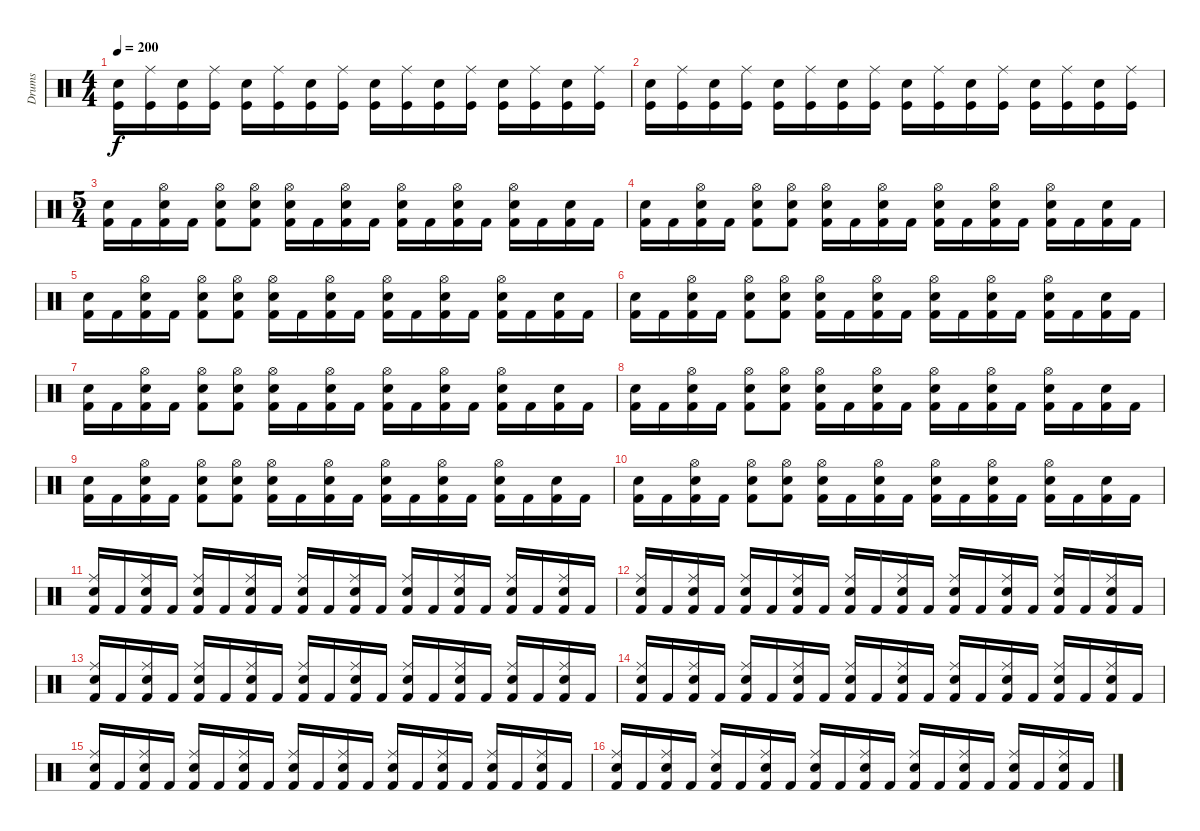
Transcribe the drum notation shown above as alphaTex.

\track ("Drums" "Drums") {instrument percussion}
\staff {score}
\articulation defaults
\ts (4 4)
\tempo 200
\clef neutral
\ks c
("Electric Snare (hit)" "Kick (hit)").16{dy f} ("Ride (middle)" "Kick (hit)").16 ("Electric Snare (hit)" "Kick (hit)").16 ("Ride (middle)" "Kick (hit)").16 ("Electric Snare (hit)" "Kick (hit)").16 ("Ride (middle)" "Kick (hit)").16 ("Electric Snare (hit)" "Kick (hit)").16 ("Ride (middle)" "Kick (hit)").16 ("Electric Snare (hit)" "Kick (hit)").16 ("Ride (middle)" "Kick (hit)").16 ("Electric Snare (hit)" "Kick (hit)").16 ("Ride (middle)" "Kick (hit)").16 ("Electric Snare (hit)" "Kick (hit)").16 ("Ride (middle)" "Kick (hit)").16 ("Electric Snare (hit)" "Kick (hit)").16 ("Ride (middle)" "Kick (hit)").16 |
("Electric Snare (hit)" "Kick (hit)").16 ("Ride (middle)" "Kick (hit)").16 ("Electric Snare (hit)" "Kick (hit)").16 ("Ride (middle)" "Kick (hit)").16 ("Electric Snare (hit)" "Kick (hit)").16 ("Ride (middle)" "Kick (hit)").16 ("Electric Snare (hit)" "Kick (hit)").16 ("Ride (middle)" "Kick (hit)").16 ("Electric Snare (hit)" "Kick (hit)").16 ("Ride (middle)" "Kick (hit)").16 ("Electric Snare (hit)" "Kick (hit)").16 ("Ride (middle)" "Kick (hit)").16 ("Electric Snare (hit)" "Kick (hit)").16 ("Ride (middle)" "Kick (hit)").16 ("Electric Snare (hit)" "Kick (hit)").16 ("Ride (middle)" "Kick (hit)").16 |
\ts (5 4)
("Electric Snare (hit)" "Kick (hit) 2").16 "Kick (hit) 2".16 ("Hi-Hat (open)" "Electric Snare (hit)" "Kick (hit) 2").16 "Kick (hit) 2".16 ("Hi-Hat (open)" "Electric Snare (hit)" "Kick (hit) 2").8 ("Hi-Hat (open)" "Electric Snare (hit)" "Kick (hit) 2").8 ("Hi-Hat (open)" "Electric Snare (hit)" "Kick (hit) 2").16 "Kick (hit) 2".16 ("Hi-Hat (open)" "Electric Snare (hit)" "Kick (hit) 2").16 "Kick (hit) 2".16 ("Hi-Hat (open)" "Electric Snare (hit)" "Kick (hit) 2").16 "Kick (hit) 2".16 ("Hi-Hat (open)" "Electric Snare (hit)" "Kick (hit) 2").16 "Kick (hit) 2".16 ("Hi-Hat (open)" "Electric Snare (hit)" "Kick (hit) 2").16 "Kick (hit) 2".16 ("Electric Snare (hit)" "Kick (hit) 2").16 "Kick (hit) 2".16 |
("Electric Snare (hit)" "Kick (hit) 2").16 "Kick (hit) 2".16 ("Hi-Hat (open)" "Electric Snare (hit)" "Kick (hit) 2").16 "Kick (hit) 2".16 ("Hi-Hat (open)" "Electric Snare (hit)" "Kick (hit) 2").8 ("Hi-Hat (open)" "Electric Snare (hit)" "Kick (hit) 2").8 ("Hi-Hat (open)" "Electric Snare (hit)" "Kick (hit) 2").16 "Kick (hit) 2".16 ("Hi-Hat (open)" "Electric Snare (hit)" "Kick (hit) 2").16 "Kick (hit) 2".16 ("Hi-Hat (open)" "Electric Snare (hit)" "Kick (hit) 2").16 "Kick (hit) 2".16 ("Hi-Hat (open)" "Electric Snare (hit)" "Kick (hit) 2").16 "Kick (hit) 2".16 ("Hi-Hat (open)" "Electric Snare (hit)" "Kick (hit) 2").16 "Kick (hit) 2".16 ("Electric Snare (hit)" "Kick (hit) 2").16 "Kick (hit) 2".16 |
("Electric Snare (hit)" "Kick (hit) 2").16 "Kick (hit) 2".16 ("Hi-Hat (open)" "Electric Snare (hit)" "Kick (hit) 2").16 "Kick (hit) 2".16 ("Hi-Hat (open)" "Electric Snare (hit)" "Kick (hit) 2").8 ("Hi-Hat (open)" "Electric Snare (hit)" "Kick (hit) 2").8 ("Hi-Hat (open)" "Electric Snare (hit)" "Kick (hit) 2").16 "Kick (hit) 2".16 ("Hi-Hat (open)" "Electric Snare (hit)" "Kick (hit) 2").16 "Kick (hit) 2".16 ("Hi-Hat (open)" "Electric Snare (hit)" "Kick (hit) 2").16 "Kick (hit) 2".16 ("Hi-Hat (open)" "Electric Snare (hit)" "Kick (hit) 2").16 "Kick (hit) 2".16 ("Hi-Hat (open)" "Electric Snare (hit)" "Kick (hit) 2").16 "Kick (hit) 2".16 ("Electric Snare (hit)" "Kick (hit) 2").16 "Kick (hit) 2".16 |
("Electric Snare (hit)" "Kick (hit) 2").16 "Kick (hit) 2".16 ("Hi-Hat (open)" "Electric Snare (hit)" "Kick (hit) 2").16 "Kick (hit) 2".16 ("Hi-Hat (open)" "Electric Snare (hit)" "Kick (hit) 2").8 ("Hi-Hat (open)" "Electric Snare (hit)" "Kick (hit) 2").8 ("Hi-Hat (open)" "Electric Snare (hit)" "Kick (hit) 2").16 "Kick (hit) 2".16 ("Hi-Hat (open)" "Electric Snare (hit)" "Kick (hit) 2").16 "Kick (hit) 2".16 ("Hi-Hat (open)" "Electric Snare (hit)" "Kick (hit) 2").16 "Kick (hit) 2".16 ("Hi-Hat (open)" "Electric Snare (hit)" "Kick (hit) 2").16 "Kick (hit) 2".16 ("Hi-Hat (open)" "Electric Snare (hit)" "Kick (hit) 2").16 "Kick (hit) 2".16 ("Electric Snare (hit)" "Kick (hit) 2").16 "Kick (hit) 2".16 |
("Electric Snare (hit)" "Kick (hit) 2").16 "Kick (hit) 2".16 ("Hi-Hat (open)" "Electric Snare (hit)" "Kick (hit) 2").16 "Kick (hit) 2".16 ("Hi-Hat (open)" "Electric Snare (hit)" "Kick (hit) 2").8 ("Hi-Hat (open)" "Electric Snare (hit)" "Kick (hit) 2").8 ("Hi-Hat (open)" "Electric Snare (hit)" "Kick (hit) 2").16 "Kick (hit) 2".16 ("Hi-Hat (open)" "Electric Snare (hit)" "Kick (hit) 2").16 "Kick (hit) 2".16 ("Hi-Hat (open)" "Electric Snare (hit)" "Kick (hit) 2").16 "Kick (hit) 2".16 ("Hi-Hat (open)" "Electric Snare (hit)" "Kick (hit) 2").16 "Kick (hit) 2".16 ("Hi-Hat (open)" "Electric Snare (hit)" "Kick (hit) 2").16 "Kick (hit) 2".16 ("Electric Snare (hit)" "Kick (hit) 2").16 "Kick (hit) 2".16 |
("Electric Snare (hit)" "Kick (hit) 2").16 "Kick (hit) 2".16 ("Hi-Hat (open)" "Electric Snare (hit)" "Kick (hit) 2").16 "Kick (hit) 2".16 ("Hi-Hat (open)" "Electric Snare (hit)" "Kick (hit) 2").8 ("Hi-Hat (open)" "Electric Snare (hit)" "Kick (hit) 2").8 ("Hi-Hat (open)" "Electric Snare (hit)" "Kick (hit) 2").16 "Kick (hit) 2".16 ("Hi-Hat (open)" "Electric Snare (hit)" "Kick (hit) 2").16 "Kick (hit) 2".16 ("Hi-Hat (open)" "Electric Snare (hit)" "Kick (hit) 2").16 "Kick (hit) 2".16 ("Hi-Hat (open)" "Electric Snare (hit)" "Kick (hit) 2").16 "Kick (hit) 2".16 ("Hi-Hat (open)" "Electric Snare (hit)" "Kick (hit) 2").16 "Kick (hit) 2".16 ("Electric Snare (hit)" "Kick (hit) 2").16 "Kick (hit) 2".16 |
("Electric Snare (hit)" "Kick (hit) 2").16 "Kick (hit) 2".16 ("Hi-Hat (open)" "Electric Snare (hit)" "Kick (hit) 2").16 "Kick (hit) 2".16 ("Hi-Hat (open)" "Electric Snare (hit)" "Kick (hit) 2").8 ("Hi-Hat (open)" "Electric Snare (hit)" "Kick (hit) 2").8 ("Hi-Hat (open)" "Electric Snare (hit)" "Kick (hit) 2").16 "Kick (hit) 2".16 ("Hi-Hat (open)" "Electric Snare (hit)" "Kick (hit) 2").16 "Kick (hit) 2".16 ("Hi-Hat (open)" "Electric Snare (hit)" "Kick (hit) 2").16 "Kick (hit) 2".16 ("Hi-Hat (open)" "Electric Snare (hit)" "Kick (hit) 2").16 "Kick (hit) 2".16 ("Hi-Hat (open)" "Electric Snare (hit)" "Kick (hit) 2").16 "Kick (hit) 2".16 ("Electric Snare (hit)" "Kick (hit) 2").16 "Kick (hit) 2".16 |
("Electric Snare (hit)" "Kick (hit) 2").16 "Kick (hit) 2".16 ("Hi-Hat (open)" "Electric Snare (hit)" "Kick (hit) 2").16 "Kick (hit) 2".16 ("Hi-Hat (open)" "Electric Snare (hit)" "Kick (hit) 2").8 ("Hi-Hat (open)" "Electric Snare (hit)" "Kick (hit) 2").8 ("Hi-Hat (open)" "Electric Snare (hit)" "Kick (hit) 2").16 "Kick (hit) 2".16 ("Hi-Hat (open)" "Electric Snare (hit)" "Kick (hit) 2").16 "Kick (hit) 2".16 ("Hi-Hat (open)" "Electric Snare (hit)" "Kick (hit) 2").16 "Kick (hit) 2".16 ("Hi-Hat (open)" "Electric Snare (hit)" "Kick (hit) 2").16 "Kick (hit) 2".16 ("Hi-Hat (open)" "Electric Snare (hit)" "Kick (hit) 2").16 "Kick (hit) 2".16 ("Electric Snare (hit)" "Kick (hit) 2").16 "Kick (hit) 2".16 |
("Ride (middle)" "Electric Snare (hit)" "Kick (hit) 2").16 "Kick (hit) 2".16 ("Ride (middle)" "Electric Snare (hit)" "Kick (hit) 2").16 "Kick (hit) 2".16 ("Ride (middle)" "Electric Snare (hit)" "Kick (hit) 2").16 "Kick (hit) 2".16 ("Ride (middle)" "Electric Snare (hit)" "Kick (hit) 2").16 "Kick (hit) 2".16 ("Ride (middle)" "Electric Snare (hit)" "Kick (hit) 2").16 "Kick (hit) 2".16 ("Ride (middle)" "Electric Snare (hit)" "Kick (hit) 2").16 "Kick (hit) 2".16 ("Ride (middle)" "Electric Snare (hit)" "Kick (hit) 2").16 "Kick (hit) 2".16 ("Ride (middle)" "Electric Snare (hit)" "Kick (hit) 2").16 "Kick (hit) 2".16 ("Ride (middle)" "Electric Snare (hit)" "Kick (hit) 2").16 "Kick (hit) 2".16 ("Ride (middle)" "Electric Snare (hit)" "Kick (hit) 2").16 "Kick (hit) 2".16 |
("Ride (middle)" "Electric Snare (hit)" "Kick (hit) 2").16 "Kick (hit) 2".16 ("Ride (middle)" "Electric Snare (hit)" "Kick (hit) 2").16 "Kick (hit) 2".16 ("Ride (middle)" "Electric Snare (hit)" "Kick (hit) 2").16 "Kick (hit) 2".16 ("Ride (middle)" "Electric Snare (hit)" "Kick (hit) 2").16 "Kick (hit) 2".16 ("Ride (middle)" "Electric Snare (hit)" "Kick (hit) 2").16 "Kick (hit) 2".16 ("Ride (middle)" "Electric Snare (hit)" "Kick (hit) 2").16 "Kick (hit) 2".16 ("Ride (middle)" "Electric Snare (hit)" "Kick (hit) 2").16 "Kick (hit) 2".16 ("Ride (middle)" "Electric Snare (hit)" "Kick (hit) 2").16 "Kick (hit) 2".16 ("Ride (middle)" "Electric Snare (hit)" "Kick (hit) 2").16 "Kick (hit) 2".16 ("Ride (middle)" "Electric Snare (hit)" "Kick (hit) 2").16 "Kick (hit) 2".16 |
("Ride (middle)" "Electric Snare (hit)" "Kick (hit) 2").16 "Kick (hit) 2".16 ("Ride (middle)" "Electric Snare (hit)" "Kick (hit) 2").16 "Kick (hit) 2".16 ("Ride (middle)" "Electric Snare (hit)" "Kick (hit) 2").16 "Kick (hit) 2".16 ("Ride (middle)" "Electric Snare (hit)" "Kick (hit) 2").16 "Kick (hit) 2".16 ("Ride (middle)" "Electric Snare (hit)" "Kick (hit) 2").16 "Kick (hit) 2".16 ("Ride (middle)" "Electric Snare (hit)" "Kick (hit) 2").16 "Kick (hit) 2".16 ("Ride (middle)" "Electric Snare (hit)" "Kick (hit) 2").16 "Kick (hit) 2".16 ("Ride (middle)" "Electric Snare (hit)" "Kick (hit) 2").16 "Kick (hit) 2".16 ("Ride (middle)" "Electric Snare (hit)" "Kick (hit) 2").16 "Kick (hit) 2".16 ("Ride (middle)" "Electric Snare (hit)" "Kick (hit) 2").16 "Kick (hit) 2".16 |
("Ride (middle)" "Electric Snare (hit)" "Kick (hit) 2").16 "Kick (hit) 2".16 ("Ride (middle)" "Electric Snare (hit)" "Kick (hit) 2").16 "Kick (hit) 2".16 ("Ride (middle)" "Electric Snare (hit)" "Kick (hit) 2").16 "Kick (hit) 2".16 ("Ride (middle)" "Electric Snare (hit)" "Kick (hit) 2").16 "Kick (hit) 2".16 ("Ride (middle)" "Electric Snare (hit)" "Kick (hit) 2").16 "Kick (hit) 2".16 ("Ride (middle)" "Electric Snare (hit)" "Kick (hit) 2").16 "Kick (hit) 2".16 ("Ride (middle)" "Electric Snare (hit)" "Kick (hit) 2").16 "Kick (hit) 2".16 ("Ride (middle)" "Electric Snare (hit)" "Kick (hit) 2").16 "Kick (hit) 2".16 ("Ride (middle)" "Electric Snare (hit)" "Kick (hit) 2").16 "Kick (hit) 2".16 ("Ride (middle)" "Electric Snare (hit)" "Kick (hit) 2").16 "Kick (hit) 2".16 |
("Ride (middle)" "Electric Snare (hit)" "Kick (hit) 2").16 "Kick (hit) 2".16 ("Ride (middle)" "Electric Snare (hit)" "Kick (hit) 2").16 "Kick (hit) 2".16 ("Ride (middle)" "Electric Snare (hit)" "Kick (hit) 2").16 "Kick (hit) 2".16 ("Ride (middle)" "Electric Snare (hit)" "Kick (hit) 2").16 "Kick (hit) 2".16 ("Ride (middle)" "Electric Snare (hit)" "Kick (hit) 2").16 "Kick (hit) 2".16 ("Ride (middle)" "Electric Snare (hit)" "Kick (hit) 2").16 "Kick (hit) 2".16 ("Ride (middle)" "Electric Snare (hit)" "Kick (hit) 2").16 "Kick (hit) 2".16 ("Ride (middle)" "Electric Snare (hit)" "Kick (hit) 2").16 "Kick (hit) 2".16 ("Ride (middle)" "Electric Snare (hit)" "Kick (hit) 2").16 "Kick (hit) 2".16 ("Ride (middle)" "Electric Snare (hit)" "Kick (hit) 2").16 "Kick (hit) 2".16 |
("Ride (middle)" "Electric Snare (hit)" "Kick (hit) 2").16 "Kick (hit) 2".16 ("Ride (middle)" "Electric Snare (hit)" "Kick (hit) 2").16 "Kick (hit) 2".16 ("Ride (middle)" "Electric Snare (hit)" "Kick (hit) 2").16 "Kick (hit) 2".16 ("Ride (middle)" "Electric Snare (hit)" "Kick (hit) 2").16 "Kick (hit) 2".16 ("Ride (middle)" "Electric Snare (hit)" "Kick (hit) 2").16 "Kick (hit) 2".16 ("Ride (middle)" "Electric Snare (hit)" "Kick (hit) 2").16 "Kick (hit) 2".16 ("Ride (middle)" "Electric Snare (hit)" "Kick (hit) 2").16 "Kick (hit) 2".16 ("Ride (middle)" "Electric Snare (hit)" "Kick (hit) 2").16 "Kick (hit) 2".16 ("Ride (middle)" "Electric Snare (hit)" "Kick (hit) 2").16 "Kick (hit) 2".16 ("Ride (middle)" "Electric Snare (hit)" "Kick (hit) 2").16 "Kick (hit) 2".16
